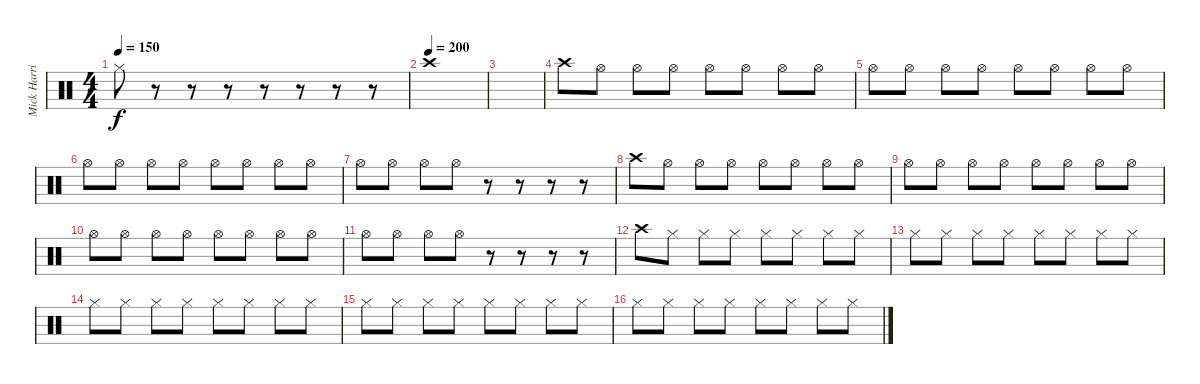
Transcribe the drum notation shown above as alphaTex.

\track ("Mick Harris" "Mick Harri") {instrument percussion}
\staff {score}
\articulation defaults
\ts (4 4)
\tempo 150
\clef neutral
\ks c "Hi-Hat (closed)".8{dy f}
r.8 r.8 r.8 r.8 r.8 r.8 r.8 |
\tempo (200)
"Crash high (hit)".1 |
|
"Crash high (hit)".8 "Hi-Hat (open)".8 "Hi-Hat (open)".8 "Hi-Hat (open)".8 "Hi-Hat (open)".8 "Hi-Hat (open)".8 "Hi-Hat (open)".8 "Hi-Hat (open)".8 |
"Hi-Hat (open)".8 "Hi-Hat (open)".8 "Hi-Hat (open)".8 "Hi-Hat (open)".8 "Hi-Hat (open)".8 "Hi-Hat (open)".8 "Hi-Hat (open)".8 "Hi-Hat (open)".8 |
"Hi-Hat (open)".8 "Hi-Hat (open)".8 "Hi-Hat (open)".8 "Hi-Hat (open)".8 "Hi-Hat (open)".8 "Hi-Hat (open)".8 "Hi-Hat (open)".8 "Hi-Hat (open)".8 |
"Hi-Hat (open)".8 "Hi-Hat (open)".8 "Hi-Hat (open)".8 "Hi-Hat (open)".8 r.8 r.8 r.8 r.8 |
"Crash high (hit)".8 "Hi-Hat (open)".8 "Hi-Hat (open)".8 "Hi-Hat (open)".8 "Hi-Hat (open)".8 "Hi-Hat (open)".8 "Hi-Hat (open)".8 "Hi-Hat (open)".8 |
"Hi-Hat (open)".8 "Hi-Hat (open)".8 "Hi-Hat (open)".8 "Hi-Hat (open)".8 "Hi-Hat (open)".8 "Hi-Hat (open)".8 "Hi-Hat (open)".8 "Hi-Hat (open)".8 |
"Hi-Hat (open)".8 "Hi-Hat (open)".8 "Hi-Hat (open)".8 "Hi-Hat (open)".8 "Hi-Hat (open)".8 "Hi-Hat (open)".8 "Hi-Hat (open)".8 "Hi-Hat (open)".8 |
"Hi-Hat (open)".8 "Hi-Hat (open)".8 "Hi-Hat (open)".8 "Hi-Hat (open)".8 r.8 r.8 r.8 r.8 |
"Crash high (hit)".8 "Hi-Hat (closed)".8 "Hi-Hat (closed)".8 "Hi-Hat (closed)".8 "Hi-Hat (closed)".8 "Hi-Hat (closed)".8 "Hi-Hat (closed)".8 "Hi-Hat (closed)".8 |
"Hi-Hat (closed)".8 "Hi-Hat (closed)".8 "Hi-Hat (closed)".8 "Hi-Hat (closed)".8 "Hi-Hat (closed)".8 "Hi-Hat (closed)".8 "Hi-Hat (closed)".8 "Hi-Hat (closed)".8 |
"Hi-Hat (closed)".8 "Hi-Hat (closed)".8 "Hi-Hat (closed)".8 "Hi-Hat (closed)".8 "Hi-Hat (closed)".8 "Hi-Hat (closed)".8 "Hi-Hat (closed)".8 "Hi-Hat (closed)".8 |
"Hi-Hat (closed)".8 "Hi-Hat (closed)".8 "Hi-Hat (closed)".8 "Hi-Hat (closed)".8 "Hi-Hat (closed)".8 "Hi-Hat (closed)".8 "Hi-Hat (closed)".8 "Hi-Hat (closed)".8 |
"Hi-Hat (closed)".8 "Hi-Hat (closed)".8 "Hi-Hat (closed)".8 "Hi-Hat (closed)".8 "Hi-Hat (closed)".8 "Hi-Hat (closed)".8 "Hi-Hat (closed)".8 "Hi-Hat (closed)".8
